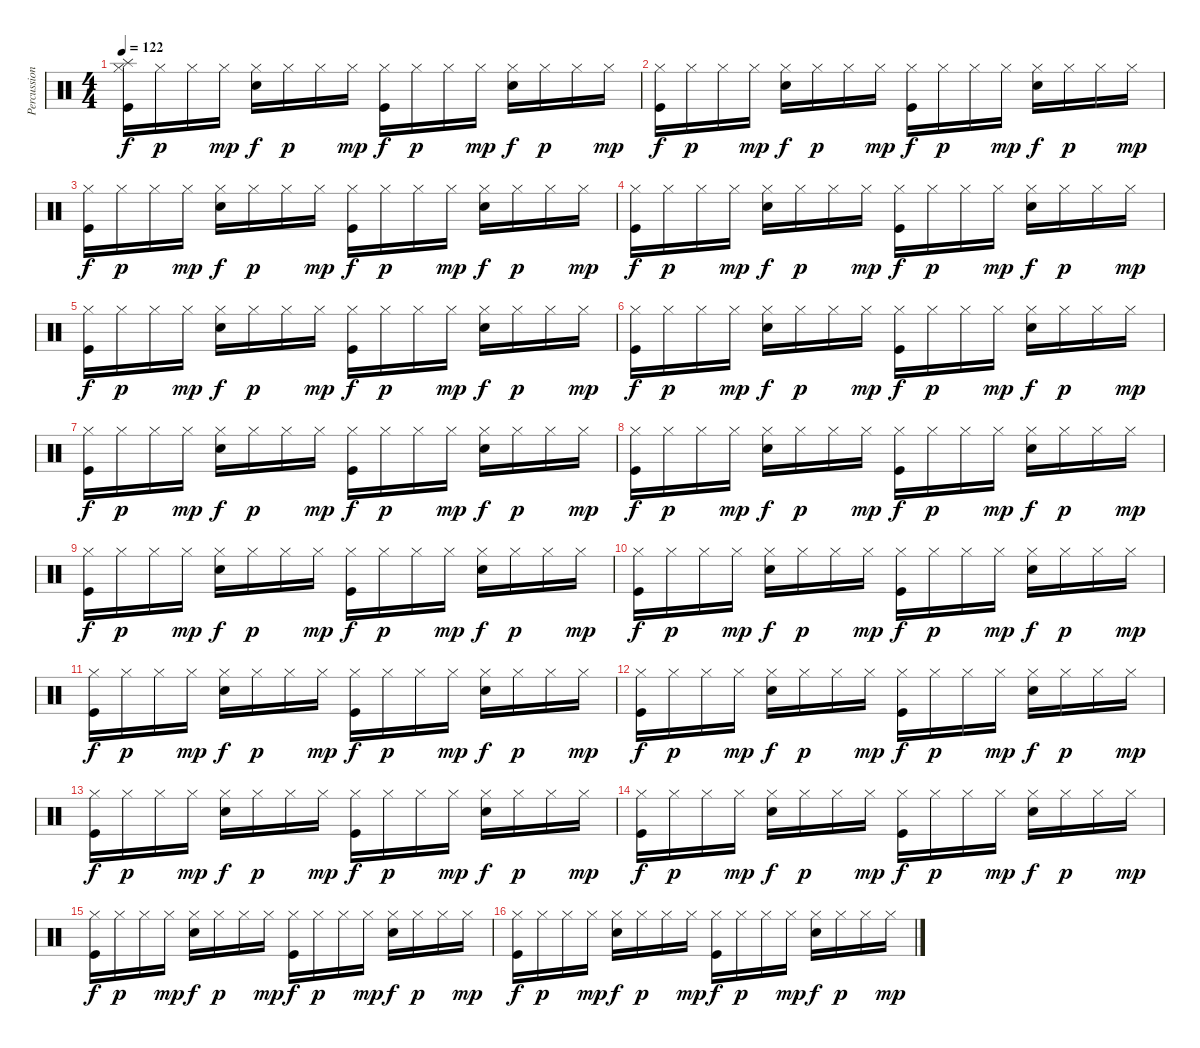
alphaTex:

\track ("Percussioni" "Percussion") {instrument percussion}
\staff {score}
\articulation defaults
\ts (4 4)
\tempo 122
\clef neutral
\ks c
("Splash (hit)" "Hi-Hat (closed)" "Kick (hit)").16{dy f} "Hi-Hat (closed)".16{dy p} "Hi-Hat (closed)".16 "Hi-Hat (closed)".16{dy mp} ("Hi-Hat (closed)" "Snare (hit) 2").16{dy f} "Hi-Hat (closed)".16{dy p} "Hi-Hat (closed)".16 "Hi-Hat (closed)".16{dy mp} ("Hi-Hat (closed)" "Kick (hit)").16{dy f} "Hi-Hat (closed)".16{dy p} "Hi-Hat (closed)".16 "Hi-Hat (closed)".16{dy mp} ("Hi-Hat (closed)" "Snare (hit) 2").16{dy f} "Hi-Hat (closed)".16{dy p} "Hi-Hat (closed)".16 "Hi-Hat (closed)".16{dy mp} |
("Hi-Hat (closed)" "Kick (hit)").16{dy f} "Hi-Hat (closed)".16{dy p} "Hi-Hat (closed)".16 "Hi-Hat (closed)".16{dy mp} ("Hi-Hat (closed)" "Snare (hit) 2").16{dy f} "Hi-Hat (closed)".16{dy p} "Hi-Hat (closed)".16 "Hi-Hat (closed)".16{dy mp} ("Hi-Hat (closed)" "Kick (hit)").16{dy f} "Hi-Hat (closed)".16{dy p} "Hi-Hat (closed)".16 "Hi-Hat (closed)".16{dy mp} ("Hi-Hat (closed)" "Snare (hit) 2").16{dy f} "Hi-Hat (closed)".16{dy p} "Hi-Hat (closed)".16 "Hi-Hat (closed)".16{dy mp} |
("Hi-Hat (closed)" "Kick (hit)").16{dy f} "Hi-Hat (closed)".16{dy p} "Hi-Hat (closed)".16 "Hi-Hat (closed)".16{dy mp} ("Hi-Hat (closed)" "Snare (hit) 2").16{dy f} "Hi-Hat (closed)".16{dy p} "Hi-Hat (closed)".16 "Hi-Hat (closed)".16{dy mp} ("Hi-Hat (closed)" "Kick (hit)").16{dy f} "Hi-Hat (closed)".16{dy p} "Hi-Hat (closed)".16 "Hi-Hat (closed)".16{dy mp} ("Hi-Hat (closed)" "Snare (hit) 2").16{dy f} "Hi-Hat (closed)".16{dy p} "Hi-Hat (closed)".16 "Hi-Hat (closed)".16{dy mp} |
("Hi-Hat (closed)" "Kick (hit)").16{dy f} "Hi-Hat (closed)".16{dy p} "Hi-Hat (closed)".16 "Hi-Hat (closed)".16{dy mp} ("Hi-Hat (closed)" "Snare (hit) 2").16{dy f} "Hi-Hat (closed)".16{dy p} "Hi-Hat (closed)".16 "Hi-Hat (closed)".16{dy mp} ("Hi-Hat (closed)" "Kick (hit)").16{dy f} "Hi-Hat (closed)".16{dy p} "Hi-Hat (closed)".16 "Hi-Hat (closed)".16{dy mp} ("Hi-Hat (closed)" "Snare (hit) 2").16{dy f} "Hi-Hat (closed)".16{dy p} "Hi-Hat (closed)".16 "Hi-Hat (closed)".16{dy mp} |
("Hi-Hat (closed)" "Kick (hit)").16{dy f} "Hi-Hat (closed)".16{dy p} "Hi-Hat (closed)".16 "Hi-Hat (closed)".16{dy mp} ("Hi-Hat (closed)" "Snare (hit) 2").16{dy f} "Hi-Hat (closed)".16{dy p} "Hi-Hat (closed)".16 "Hi-Hat (closed)".16{dy mp} ("Hi-Hat (closed)" "Kick (hit)").16{dy f} "Hi-Hat (closed)".16{dy p} "Hi-Hat (closed)".16 "Hi-Hat (closed)".16{dy mp} ("Hi-Hat (closed)" "Snare (hit) 2").16{dy f} "Hi-Hat (closed)".16{dy p} "Hi-Hat (closed)".16 "Hi-Hat (closed)".16{dy mp} |
("Hi-Hat (closed)" "Kick (hit)").16{dy f} "Hi-Hat (closed)".16{dy p} "Hi-Hat (closed)".16 "Hi-Hat (closed)".16{dy mp} ("Hi-Hat (closed)" "Snare (hit) 2").16{dy f} "Hi-Hat (closed)".16{dy p} "Hi-Hat (closed)".16 "Hi-Hat (closed)".16{dy mp} ("Hi-Hat (closed)" "Kick (hit)").16{dy f} "Hi-Hat (closed)".16{dy p} "Hi-Hat (closed)".16 "Hi-Hat (closed)".16{dy mp} ("Hi-Hat (closed)" "Snare (hit) 2").16{dy f} "Hi-Hat (closed)".16{dy p} "Hi-Hat (closed)".16 "Hi-Hat (closed)".16{dy mp} |
("Hi-Hat (closed)" "Kick (hit)").16{dy f} "Hi-Hat (closed)".16{dy p} "Hi-Hat (closed)".16 "Hi-Hat (closed)".16{dy mp} ("Hi-Hat (closed)" "Snare (hit) 2").16{dy f} "Hi-Hat (closed)".16{dy p} "Hi-Hat (closed)".16 "Hi-Hat (closed)".16{dy mp} ("Hi-Hat (closed)" "Kick (hit)").16{dy f} "Hi-Hat (closed)".16{dy p} "Hi-Hat (closed)".16 "Hi-Hat (closed)".16{dy mp} ("Hi-Hat (closed)" "Snare (hit) 2").16{dy f} "Hi-Hat (closed)".16{dy p} "Hi-Hat (closed)".16 "Hi-Hat (closed)".16{dy mp} |
("Hi-Hat (closed)" "Kick (hit)").16{dy f} "Hi-Hat (closed)".16{dy p} "Hi-Hat (closed)".16 "Hi-Hat (closed)".16{dy mp} ("Hi-Hat (closed)" "Snare (hit) 2").16{dy f} "Hi-Hat (closed)".16{dy p} "Hi-Hat (closed)".16 "Hi-Hat (closed)".16{dy mp} ("Hi-Hat (closed)" "Kick (hit)").16{dy f} "Hi-Hat (closed)".16{dy p} "Hi-Hat (closed)".16 "Hi-Hat (closed)".16{dy mp} ("Hi-Hat (closed)" "Snare (hit) 2").16{dy f} "Hi-Hat (closed)".16{dy p} "Hi-Hat (closed)".16 "Hi-Hat (closed)".16{dy mp} |
("Hi-Hat (closed)" "Kick (hit)").16{dy f} "Hi-Hat (closed)".16{dy p} "Hi-Hat (closed)".16 "Hi-Hat (closed)".16{dy mp} ("Hi-Hat (closed)" "Snare (hit) 2").16{dy f} "Hi-Hat (closed)".16{dy p} "Hi-Hat (closed)".16 "Hi-Hat (closed)".16{dy mp} ("Hi-Hat (closed)" "Kick (hit)").16{dy f} "Hi-Hat (closed)".16{dy p} "Hi-Hat (closed)".16 "Hi-Hat (closed)".16{dy mp} ("Hi-Hat (closed)" "Snare (hit) 2").16{dy f} "Hi-Hat (closed)".16{dy p} "Hi-Hat (closed)".16 "Hi-Hat (closed)".16{dy mp} |
("Hi-Hat (closed)" "Kick (hit)").16{dy f} "Hi-Hat (closed)".16{dy p} "Hi-Hat (closed)".16 "Hi-Hat (closed)".16{dy mp} ("Hi-Hat (closed)" "Snare (hit) 2").16{dy f} "Hi-Hat (closed)".16{dy p} "Hi-Hat (closed)".16 "Hi-Hat (closed)".16{dy mp} ("Hi-Hat (closed)" "Kick (hit)").16{dy f} "Hi-Hat (closed)".16{dy p} "Hi-Hat (closed)".16 "Hi-Hat (closed)".16{dy mp} ("Hi-Hat (closed)" "Snare (hit) 2").16{dy f} "Hi-Hat (closed)".16{dy p} "Hi-Hat (closed)".16 "Hi-Hat (closed)".16{dy mp} |
("Hi-Hat (closed)" "Kick (hit)").16{dy f} "Hi-Hat (closed)".16{dy p} "Hi-Hat (closed)".16 "Hi-Hat (closed)".16{dy mp} ("Hi-Hat (closed)" "Snare (hit) 2").16{dy f} "Hi-Hat (closed)".16{dy p} "Hi-Hat (closed)".16 "Hi-Hat (closed)".16{dy mp} ("Hi-Hat (closed)" "Kick (hit)").16{dy f} "Hi-Hat (closed)".16{dy p} "Hi-Hat (closed)".16 "Hi-Hat (closed)".16{dy mp} ("Hi-Hat (closed)" "Snare (hit) 2").16{dy f} "Hi-Hat (closed)".16{dy p} "Hi-Hat (closed)".16 "Hi-Hat (closed)".16{dy mp} |
("Hi-Hat (closed)" "Kick (hit)").16{dy f} "Hi-Hat (closed)".16{dy p} "Hi-Hat (closed)".16 "Hi-Hat (closed)".16{dy mp} ("Hi-Hat (closed)" "Snare (hit) 2").16{dy f} "Hi-Hat (closed)".16{dy p} "Hi-Hat (closed)".16 "Hi-Hat (closed)".16{dy mp} ("Hi-Hat (closed)" "Kick (hit)").16{dy f} "Hi-Hat (closed)".16{dy p} "Hi-Hat (closed)".16 "Hi-Hat (closed)".16{dy mp} ("Hi-Hat (closed)" "Snare (hit) 2").16{dy f} "Hi-Hat (closed)".16{dy p} "Hi-Hat (closed)".16 "Hi-Hat (closed)".16{dy mp} |
("Hi-Hat (closed)" "Kick (hit)").16{dy f} "Hi-Hat (closed)".16{dy p} "Hi-Hat (closed)".16 "Hi-Hat (closed)".16{dy mp} ("Hi-Hat (closed)" "Snare (hit) 2").16{dy f} "Hi-Hat (closed)".16{dy p} "Hi-Hat (closed)".16 "Hi-Hat (closed)".16{dy mp} ("Hi-Hat (closed)" "Kick (hit)").16{dy f} "Hi-Hat (closed)".16{dy p} "Hi-Hat (closed)".16 "Hi-Hat (closed)".16{dy mp} ("Hi-Hat (closed)" "Snare (hit) 2").16{dy f} "Hi-Hat (closed)".16{dy p} "Hi-Hat (closed)".16 "Hi-Hat (closed)".16{dy mp} |
("Hi-Hat (closed)" "Kick (hit)").16{dy f} "Hi-Hat (closed)".16{dy p} "Hi-Hat (closed)".16 "Hi-Hat (closed)".16{dy mp} ("Hi-Hat (closed)" "Snare (hit) 2").16{dy f} "Hi-Hat (closed)".16{dy p} "Hi-Hat (closed)".16 "Hi-Hat (closed)".16{dy mp} ("Hi-Hat (closed)" "Kick (hit)").16{dy f} "Hi-Hat (closed)".16{dy p} "Hi-Hat (closed)".16 "Hi-Hat (closed)".16{dy mp} ("Hi-Hat (closed)" "Snare (hit) 2").16{dy f} "Hi-Hat (closed)".16{dy p} "Hi-Hat (closed)".16 "Hi-Hat (closed)".16{dy mp} |
("Hi-Hat (closed)" "Kick (hit)").16{dy f} "Hi-Hat (closed)".16{dy p} "Hi-Hat (closed)".16 "Hi-Hat (closed)".16{dy mp} ("Hi-Hat (closed)" "Snare (hit) 2").16{dy f} "Hi-Hat (closed)".16{dy p} "Hi-Hat (closed)".16 "Hi-Hat (closed)".16{dy mp} ("Hi-Hat (closed)" "Kick (hit)").16{dy f} "Hi-Hat (closed)".16{dy p} "Hi-Hat (closed)".16 "Hi-Hat (closed)".16{dy mp} ("Hi-Hat (closed)" "Snare (hit) 2").16{dy f} "Hi-Hat (closed)".16{dy p} "Hi-Hat (closed)".16 "Hi-Hat (closed)".16{dy mp} |
("Hi-Hat (closed)" "Kick (hit)").16{dy f} "Hi-Hat (closed)".16{dy p} "Hi-Hat (closed)".16 "Hi-Hat (closed)".16{dy mp} ("Hi-Hat (closed)" "Snare (hit) 2").16{dy f} "Hi-Hat (closed)".16{dy p} "Hi-Hat (closed)".16 "Hi-Hat (closed)".16{dy mp} ("Hi-Hat (closed)" "Kick (hit)").16{dy f} "Hi-Hat (closed)".16{dy p} "Hi-Hat (closed)".16 "Hi-Hat (closed)".16{dy mp} ("Hi-Hat (closed)" "Snare (hit) 2").16{dy f} "Hi-Hat (closed)".16{dy p} "Hi-Hat (closed)".16 "Hi-Hat (closed)".16{dy mp}
